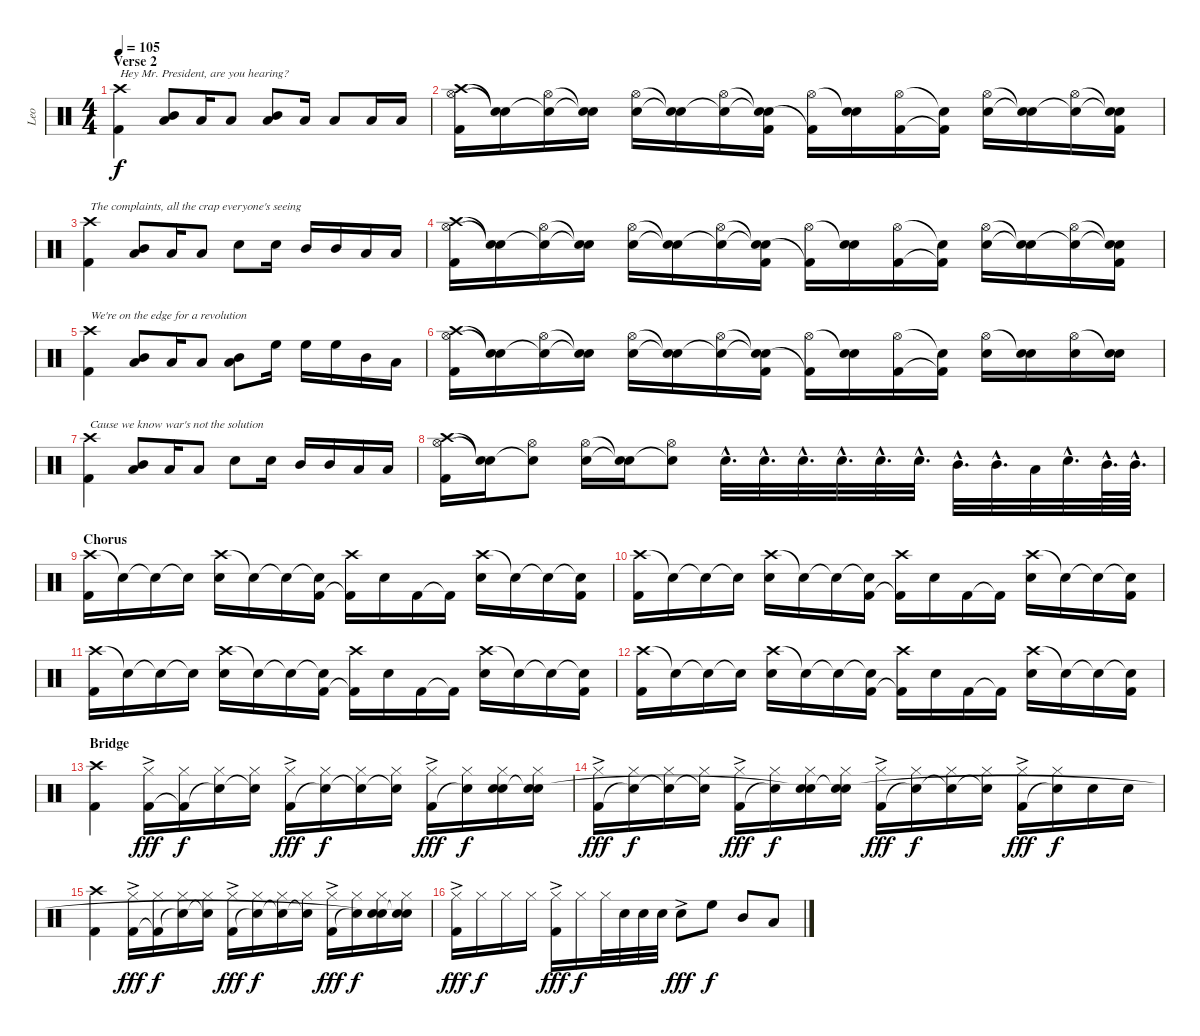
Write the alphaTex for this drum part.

\track ("Leo" "Leo") {instrument percussion}
\staff {score}
\articulation defaults
\ts (4 4)
\section ("" "Verse 2")
\tempo 105
\clef neutral
\ks c
("Crash high (hit)" "Kick (hit) 2").4{txt "Hey Mr. President, are you hearing?" dy f} ("Mid Tom (hit)" "Low Floor Tom (hit)").8 "Low Floor Tom (hit)".16 "Low Floor Tom (hit)".8 ("Mid Tom (hit)" "Low Floor Tom (hit)").8 "Low Floor Tom (hit)".16 "Low Floor Tom (hit)".8 "Low Floor Tom (hit)".16 "Low Floor Tom (hit)".16 |
("Hi-Hat (open)" "Crash high (hit)" "Kick (hit) 2").16 ("Snare (hit)"{t} "Snare (hit)"{t}).16 ("Hi-Hat (open)" "Snare (hit)"{t}).16 ("Snare (hit)"{t} "Snare (hit)"{t}).16 ("Hi-Hat (open)" "Snare (hit) 2").16 ("Snare (hit)"{t} "Snare (hit)"{t}).16 ("Hi-Hat (open)" "Snare (hit)"{t}).16 ("Snare (hit)"{t} "Snare (hit)"{t} "Kick (hit) 2").16 ("Hi-Hat (open)" "Kick (hit) 2"{t}).16 ("Snare (hit)"{t} "Snare (hit) 2").16 ("Hi-Hat (open)" "Kick (hit) 2").16 ("Snare (hit)"{t} "Kick (hit) 2"{t}).16 ("Hi-Hat (open)" "Snare (hit) 2").16 ("Snare (hit)"{t} "Snare (hit) 2"{t}).16 ("Hi-Hat (open)" "Snare (hit)"{t}).16 ("Snare (hit)"{t} "Snare (hit)"{t} "Kick (hit) 2").16 |
("Crash high (hit)" "Kick (hit) 2").4{txt "The complaints, all the crap everyone's seeing"} ("Mid Tom (hit)" "Low Floor Tom (hit)").8 "Low Floor Tom (hit)".16 "Low Floor Tom (hit)".8 "Snare (hit) 2".8 "Snare (hit) 2".16 "Mid Tom (hit)".16 "Mid Tom (hit)".16 "Low Floor Tom (hit)".16 "Low Floor Tom (hit)".16 |
("Hi-Hat (open)" "Crash high (hit)" "Kick (hit) 2").16 ("Snare (hit)"{t} "Snare (hit)"{t}).16 ("Hi-Hat (open)" "Snare (hit)"{t}).16 ("Snare (hit)"{t} "Snare (hit)"{t}).16 ("Hi-Hat (open)" "Snare (hit) 2").16 ("Snare (hit)"{t} "Snare (hit)"{t}).16 ("Hi-Hat (open)" "Snare (hit)"{t}).16 ("Snare (hit)"{t} "Snare (hit)"{t} "Kick (hit) 2").16 ("Hi-Hat (open)" "Kick (hit) 2"{t}).16 ("Snare (hit)"{t} "Snare (hit) 2").16 ("Hi-Hat (open)" "Kick (hit) 2").16 ("Snare (hit)"{t} "Kick (hit) 2"{t}).16 ("Hi-Hat (open)" "Snare (hit) 2").16 ("Snare (hit)"{t} "Snare (hit) 2"{t}).16 ("Hi-Hat (open)" "Snare (hit)"{t}).16 ("Snare (hit)"{t} "Snare (hit)"{t} "Kick (hit) 2").16 |
("Crash high (hit)" "Kick (hit) 2").4{txt "We're on the edge for a revolution"} ("Mid Tom (hit)" "Low Floor Tom (hit)").8 "Low Floor Tom (hit)".16 "Low Floor Tom (hit)".8 ("Mid Tom (hit)" "Low Floor Tom (hit)").8 "High Floor Tom (hit)".16 "High Floor Tom (hit)".16 "High Floor Tom (hit)".16 "Mid Tom (hit)".16 "Low Floor Tom (hit)".16 |
("Hi-Hat (open)" "Crash high (hit)" "Kick (hit) 2").16 ("Snare (hit)"{t} "Snare (hit)"{t}).16 ("Hi-Hat (open)" "Snare (hit)"{t}).16 ("Snare (hit)"{t} "Snare (hit)"{t}).16 ("Hi-Hat (open)" "Snare (hit) 2").16 ("Snare (hit)"{t} "Snare (hit)"{t}).16 ("Hi-Hat (open)" "Snare (hit)"{t}).16 ("Snare (hit)"{t} "Snare (hit)"{t} "Kick (hit) 2").16 ("Hi-Hat (open)" "Kick (hit) 2"{t}).16 ("Snare (hit)"{t} "Snare (hit) 2").16 ("Hi-Hat (open)" "Kick (hit) 2").16 ("Snare (hit)"{t} "Kick (hit) 2"{t}).16 ("Hi-Hat (open)" "Snare (hit) 2").16 ("Snare (hit)"{t} "Snare (hit) 2").16 ("Hi-Hat (open)" "Snare (hit) 2").16 ("Snare (hit)"{t} "Snare (hit) 2").16 |
("Crash high (hit)" "Kick (hit) 2").4{txt "Cause we know war's not the solution"} ("Mid Tom (hit)" "Low Floor Tom (hit)").8 "Low Floor Tom (hit)".16 "Low Floor Tom (hit)".8 "Snare (hit) 2".8 "Snare (hit) 2".16 "Mid Tom (hit)".16 "Mid Tom (hit)".16 "Low Floor Tom (hit)".16 "Low Floor Tom (hit)".16 |
("Hi-Hat (open)" "Crash high (hit)" "Kick (hit) 2").16 ("Snare (hit)"{t} "Snare (hit)"{t}).16 ("Hi-Hat (open)" "Snare (hit)"{t}).8 ("Hi-Hat (open)" "Snare (hit) 2").16 ("Snare (hit)"{t} "Snare (hit)"{t}).16 ("Hi-Hat (open)" "Snare (hit)"{t}).8 "Snare (hit) 2"{hac}.32{d} "Snare (hit) 2"{hac}.32{d} "Snare (hit) 2"{hac}.32{d} "Snare (hit) 2"{hac}.32{d} "Snare (hit) 2"{hac}.32{d} "Snare (hit) 2"{hac}.32{d} "Mid Tom (hit)"{hac}.32{d} "Mid Tom (hit)"{hac}.32{d} "Low Floor Tom (hit)".32 "Snare (hit) 2"{hac}.32{d} "Mid Tom (hit)"{hac}.64{d} "Mid Tom (hit)"{hac}.64{d} |
\section ("" "Chorus")
("Crash high (hit)" "Kick (hit) 2").16 "Snare (hit)"{t}.16 "Snare (hit)"{t}.16 "Snare (hit)"{t}.16 ("Crash high (hit)" "Snare (hit) 2").16 "Snare (hit)"{t}.16 "Snare (hit)"{t}.16 ("Snare (hit)"{t} "Kick (hit) 2").16 ("Crash high (hit)" "Kick (hit) 2"{t}).16 "Snare (hit) 2".16 "Kick (hit) 2".16 "Kick (hit) 2"{t}.16 ("Crash high (hit)" "Snare (hit) 2").16 "Snare (hit) 2"{t}.16 "Snare (hit)"{t}.16 ("Snare (hit)"{t} "Kick (hit) 2").16 |
("Crash high (hit)" "Kick (hit) 2").16 "Snare (hit)"{t}.16 "Snare (hit)"{t}.16 "Snare (hit)"{t}.16 ("Crash high (hit)" "Snare (hit) 2").16 "Snare (hit)"{t}.16 "Snare (hit)"{t}.16 ("Snare (hit)"{t} "Kick (hit) 2").16 ("Crash high (hit)" "Kick (hit) 2"{t}).16 "Snare (hit) 2".16 "Kick (hit) 2".16 "Kick (hit) 2"{t}.16 ("Crash high (hit)" "Snare (hit) 2").16 "Snare (hit) 2"{t}.16 "Snare (hit)"{t}.16 ("Snare (hit)"{t} "Kick (hit) 2").16 |
("Crash high (hit)" "Kick (hit) 2").16 "Snare (hit)"{t}.16 "Snare (hit)"{t}.16 "Snare (hit)"{t}.16 ("Crash high (hit)" "Snare (hit) 2").16 "Snare (hit)"{t}.16 "Snare (hit)"{t}.16 ("Snare (hit)"{t} "Kick (hit) 2").16 ("Crash high (hit)" "Kick (hit) 2"{t}).16 "Snare (hit) 2".16 "Kick (hit) 2".16 "Kick (hit) 2"{t}.16 ("Crash high (hit)" "Snare (hit) 2").16 "Snare (hit) 2"{t}.16 "Snare (hit)"{t}.16 ("Snare (hit)"{t} "Kick (hit) 2").16 |
("Crash high (hit)" "Kick (hit) 2").16 "Snare (hit)"{t}.16 "Snare (hit)"{t}.16 "Snare (hit)"{t}.16 ("Crash high (hit)" "Snare (hit) 2").16 "Snare (hit)"{t}.16 "Snare (hit)"{t}.16 ("Snare (hit)"{t} "Kick (hit) 2").16 ("Crash high (hit)" "Kick (hit) 2"{t}).16 "Snare (hit) 2".16 "Kick (hit) 2".16 "Kick (hit) 2"{t}.16 ("Crash high (hit)" "Snare (hit) 2").16 "Snare (hit) 2"{t}.16 "Snare (hit)"{t}.16 ("Snare (hit)"{t} "Kick (hit) 2").16 |
\section ("" "Bridge")
("Crash high (hit)" "Kick (hit) 2").4 ("Hi-Hat (closed)"{ac} "Kick (hit) 2").16{dy fff} ("Hi-Hat (closed)" "Kick (hit) 2"{t}).16{dy f} ("Hi-Hat (closed)" "Snare (hit)"{t}).16 ("Hi-Hat (closed)" "Snare (hit)"{t}).16 ("Hi-Hat (closed)"{ac} "Kick (hit) 2").16{dy fff} ("Hi-Hat (closed)" "Snare (hit)"{t}).16{dy f} ("Hi-Hat (closed)" "Snare (hit)"{t}).16 ("Hi-Hat (closed)" "Snare (hit)"{t}).16 ("Hi-Hat (closed)"{ac} "Kick (hit) 2").16{dy fff} ("Hi-Hat (closed)" "Snare (hit)"{t}).16{dy f} ("Hi-Hat (closed)" "Snare (hit) 2" "Snare (hit)").16 ("Hi-Hat (closed)" "Snare (hit) 2" "Snare (hit)"{t}).16 |
("Hi-Hat (closed)"{ac} "Kick (hit) 2").16{dy fff} ("Hi-Hat (closed)" "Snare (hit)"{t}).16{dy f} ("Hi-Hat (closed)" "Snare (hit)"{t}).16 ("Hi-Hat (closed)" "Snare (hit)"{t}).16 ("Hi-Hat (closed)"{ac} "Kick (hit) 2").16{dy fff} ("Hi-Hat (closed)" "Snare (hit)"{t}).16{dy f} ("Hi-Hat (closed)" "Snare (hit) 2" "Snare (hit)"{t}).16 ("Hi-Hat (closed)" "Snare (hit) 2" "Snare (hit)"{t}).16 ("Hi-Hat (closed)"{ac} "Kick (hit) 2").16{dy fff} ("Hi-Hat (closed)" "Snare (hit)"{t}).16{dy f} ("Hi-Hat (closed)" "Snare (hit)"{t}).16 ("Hi-Hat (closed)" "Snare (hit)"{t}).16 ("Hi-Hat (closed)"{ac} "Kick (hit) 2").16{dy fff} ("Hi-Hat (closed)" "Snare (hit)"{t}).16{dy f} "Snare (hit) 2".16 "Snare (hit) 2".16 |
("Crash high (hit)" "Kick (hit) 2").4 ("Hi-Hat (closed)"{ac} "Kick (hit) 2").16{dy fff} ("Hi-Hat (closed)" "Kick (hit) 2"{t}).16{dy f} ("Hi-Hat (closed)" "Snare (hit)"{t}).16 ("Hi-Hat (closed)" "Snare (hit)"{t}).16 ("Hi-Hat (closed)"{ac} "Kick (hit) 2").16{dy fff} ("Hi-Hat (closed)" "Snare (hit)"{t}).16{dy f} ("Hi-Hat (closed)" "Snare (hit)"{t}).16 ("Hi-Hat (closed)" "Snare (hit)"{t}).16 ("Hi-Hat (closed)"{ac} "Kick (hit) 2").16{dy fff} ("Hi-Hat (closed)" "Snare (hit)"{t}).16{dy f} ("Hi-Hat (closed)" "Snare (hit) 2" "Snare (hit)"{t}).16 ("Hi-Hat (closed)" "Snare (hit) 2" "Snare (hit)"{t}).16 |
("Hi-Hat (closed)"{ac} "Kick (hit) 2").16{dy fff} "Hi-Hat (closed)".16{dy f} "Hi-Hat (closed)".16 "Hi-Hat (closed)".16 ("Hi-Hat (closed)"{ac} "Kick (hit) 2").16{dy fff} "Hi-Hat (closed)".16{dy f} "Hi-Hat (closed)".32 "Snare (hit) 2".32 "Snare (hit) 2".32 "Snare (hit) 2".32 "Snare (hit) 2"{ac}.8{dy fff} "High Floor Tom (hit)".8{dy f} "Mid Tom (hit)".8 "Low Floor Tom (hit)".8
